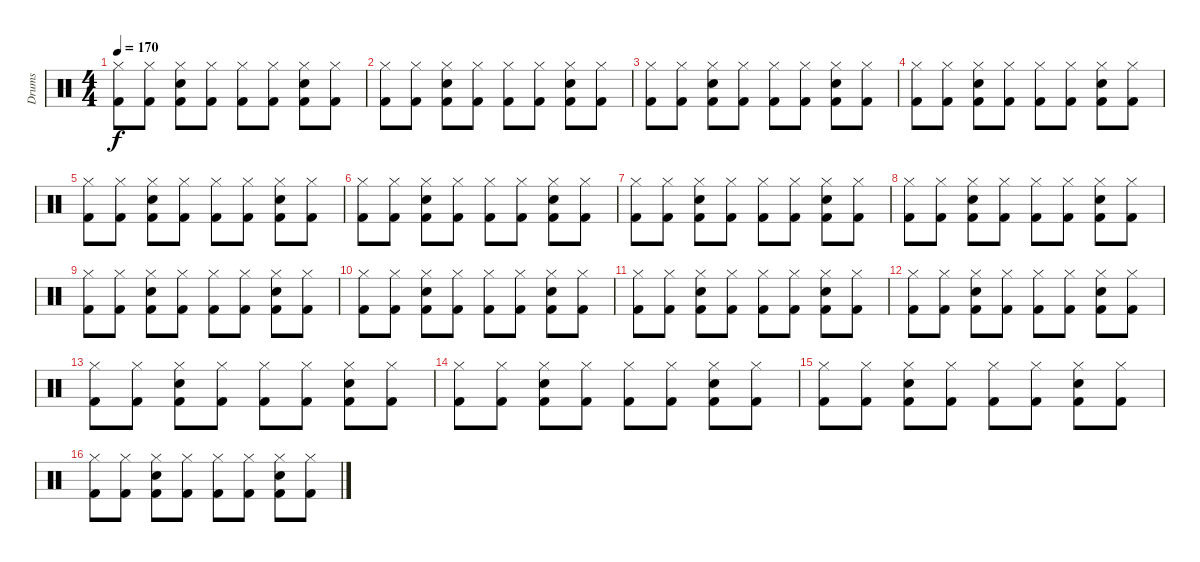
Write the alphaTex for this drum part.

\track ("Drums" "Drums") {instrument percussion}
\staff {score}
\articulation defaults
\ts (4 4)
\tempo 170
\clef neutral
\ks c
("Hi-Hat (closed)" "Kick (hit) 2").8{dy f} ("Hi-Hat (closed)" "Kick (hit) 2").8 ("Hi-Hat (closed)" "Electric Snare (hit)" "Kick (hit) 2").8 ("Hi-Hat (closed)" "Kick (hit) 2").8 ("Hi-Hat (closed)" "Kick (hit) 2").8 ("Hi-Hat (closed)" "Kick (hit) 2").8 ("Hi-Hat (closed)" "Electric Snare (hit)" "Kick (hit) 2").8 ("Hi-Hat (closed)" "Kick (hit) 2").8 |
("Hi-Hat (closed)" "Kick (hit) 2").8 ("Hi-Hat (closed)" "Kick (hit) 2").8 ("Hi-Hat (closed)" "Electric Snare (hit)" "Kick (hit) 2").8 ("Hi-Hat (closed)" "Kick (hit) 2").8 ("Hi-Hat (closed)" "Kick (hit) 2").8 ("Hi-Hat (closed)" "Kick (hit) 2").8 ("Hi-Hat (closed)" "Electric Snare (hit)" "Kick (hit) 2").8 ("Hi-Hat (closed)" "Kick (hit) 2").8 |
("Hi-Hat (closed)" "Kick (hit) 2").8 ("Hi-Hat (closed)" "Kick (hit) 2").8 ("Hi-Hat (closed)" "Electric Snare (hit)" "Kick (hit) 2").8 ("Hi-Hat (closed)" "Kick (hit) 2").8 ("Hi-Hat (closed)" "Kick (hit) 2").8 ("Hi-Hat (closed)" "Kick (hit) 2").8 ("Hi-Hat (closed)" "Electric Snare (hit)" "Kick (hit) 2").8 ("Hi-Hat (closed)" "Kick (hit) 2").8 |
("Hi-Hat (closed)" "Kick (hit) 2").8 ("Hi-Hat (closed)" "Kick (hit) 2").8 ("Hi-Hat (closed)" "Electric Snare (hit)" "Kick (hit) 2").8 ("Hi-Hat (closed)" "Kick (hit) 2").8 ("Hi-Hat (closed)" "Kick (hit) 2").8 ("Hi-Hat (closed)" "Kick (hit) 2").8 ("Hi-Hat (closed)" "Electric Snare (hit)" "Kick (hit) 2").8 ("Hi-Hat (closed)" "Kick (hit) 2").8 |
("Hi-Hat (closed)" "Kick (hit) 2").8 ("Hi-Hat (closed)" "Kick (hit) 2").8 ("Hi-Hat (closed)" "Electric Snare (hit)" "Kick (hit) 2").8 ("Hi-Hat (closed)" "Kick (hit) 2").8 ("Hi-Hat (closed)" "Kick (hit) 2").8 ("Hi-Hat (closed)" "Kick (hit) 2").8 ("Hi-Hat (closed)" "Electric Snare (hit)" "Kick (hit) 2").8 ("Hi-Hat (closed)" "Kick (hit) 2").8 |
("Hi-Hat (closed)" "Kick (hit) 2").8 ("Hi-Hat (closed)" "Kick (hit) 2").8 ("Hi-Hat (closed)" "Electric Snare (hit)" "Kick (hit) 2").8 ("Hi-Hat (closed)" "Kick (hit) 2").8 ("Hi-Hat (closed)" "Kick (hit) 2").8 ("Hi-Hat (closed)" "Kick (hit) 2").8 ("Hi-Hat (closed)" "Electric Snare (hit)" "Kick (hit) 2").8 ("Hi-Hat (closed)" "Kick (hit) 2").8 |
("Hi-Hat (closed)" "Kick (hit) 2").8 ("Hi-Hat (closed)" "Kick (hit) 2").8 ("Hi-Hat (closed)" "Electric Snare (hit)" "Kick (hit) 2").8 ("Hi-Hat (closed)" "Kick (hit) 2").8 ("Hi-Hat (closed)" "Kick (hit) 2").8 ("Hi-Hat (closed)" "Kick (hit) 2").8 ("Hi-Hat (closed)" "Electric Snare (hit)" "Kick (hit) 2").8 ("Hi-Hat (closed)" "Kick (hit) 2").8 |
("Hi-Hat (closed)" "Kick (hit) 2").8 ("Hi-Hat (closed)" "Kick (hit) 2").8 ("Hi-Hat (closed)" "Electric Snare (hit)" "Kick (hit) 2").8 ("Hi-Hat (closed)" "Kick (hit) 2").8 ("Hi-Hat (closed)" "Kick (hit) 2").8 ("Hi-Hat (closed)" "Kick (hit) 2").8 ("Hi-Hat (closed)" "Electric Snare (hit)" "Kick (hit) 2").8 ("Hi-Hat (closed)" "Kick (hit) 2").8 |
("Hi-Hat (closed)" "Kick (hit) 2").8 ("Hi-Hat (closed)" "Kick (hit) 2").8 ("Hi-Hat (closed)" "Electric Snare (hit)" "Kick (hit) 2").8 ("Hi-Hat (closed)" "Kick (hit) 2").8 ("Hi-Hat (closed)" "Kick (hit) 2").8 ("Hi-Hat (closed)" "Kick (hit) 2").8 ("Hi-Hat (closed)" "Electric Snare (hit)" "Kick (hit) 2").8 ("Hi-Hat (closed)" "Kick (hit) 2").8 |
("Hi-Hat (closed)" "Kick (hit) 2").8 ("Hi-Hat (closed)" "Kick (hit) 2").8 ("Hi-Hat (closed)" "Electric Snare (hit)" "Kick (hit) 2").8 ("Hi-Hat (closed)" "Kick (hit) 2").8 ("Hi-Hat (closed)" "Kick (hit) 2").8 ("Hi-Hat (closed)" "Kick (hit) 2").8 ("Hi-Hat (closed)" "Electric Snare (hit)" "Kick (hit) 2").8 ("Hi-Hat (closed)" "Kick (hit) 2").8 |
("Hi-Hat (closed)" "Kick (hit) 2").8 ("Hi-Hat (closed)" "Kick (hit) 2").8 ("Hi-Hat (closed)" "Electric Snare (hit)" "Kick (hit) 2").8 ("Hi-Hat (closed)" "Kick (hit) 2").8 ("Hi-Hat (closed)" "Kick (hit) 2").8 ("Hi-Hat (closed)" "Kick (hit) 2").8 ("Hi-Hat (closed)" "Electric Snare (hit)" "Kick (hit) 2").8 ("Hi-Hat (closed)" "Kick (hit) 2").8 |
("Hi-Hat (closed)" "Kick (hit) 2").8 ("Hi-Hat (closed)" "Kick (hit) 2").8 ("Hi-Hat (closed)" "Electric Snare (hit)" "Kick (hit) 2").8 ("Hi-Hat (closed)" "Kick (hit) 2").8 ("Hi-Hat (closed)" "Kick (hit) 2").8 ("Hi-Hat (closed)" "Kick (hit) 2").8 ("Hi-Hat (closed)" "Electric Snare (hit)" "Kick (hit) 2").8 ("Hi-Hat (closed)" "Kick (hit) 2").8 |
("Hi-Hat (closed)" "Kick (hit) 2").8 ("Hi-Hat (closed)" "Kick (hit) 2").8 ("Hi-Hat (closed)" "Electric Snare (hit)" "Kick (hit) 2").8 ("Hi-Hat (closed)" "Kick (hit) 2").8 ("Hi-Hat (closed)" "Kick (hit) 2").8 ("Hi-Hat (closed)" "Kick (hit) 2").8 ("Hi-Hat (closed)" "Electric Snare (hit)" "Kick (hit) 2").8 ("Hi-Hat (closed)" "Kick (hit) 2").8 |
("Hi-Hat (closed)" "Kick (hit) 2").8 ("Hi-Hat (closed)" "Kick (hit) 2").8 ("Hi-Hat (closed)" "Electric Snare (hit)" "Kick (hit) 2").8 ("Hi-Hat (closed)" "Kick (hit) 2").8 ("Hi-Hat (closed)" "Kick (hit) 2").8 ("Hi-Hat (closed)" "Kick (hit) 2").8 ("Hi-Hat (closed)" "Electric Snare (hit)" "Kick (hit) 2").8 ("Hi-Hat (closed)" "Kick (hit) 2").8 |
("Hi-Hat (closed)" "Kick (hit) 2").8 ("Hi-Hat (closed)" "Kick (hit) 2").8 ("Hi-Hat (closed)" "Electric Snare (hit)" "Kick (hit) 2").8 ("Hi-Hat (closed)" "Kick (hit) 2").8 ("Hi-Hat (closed)" "Kick (hit) 2").8 ("Hi-Hat (closed)" "Kick (hit) 2").8 ("Hi-Hat (closed)" "Electric Snare (hit)" "Kick (hit) 2").8 ("Hi-Hat (closed)" "Kick (hit) 2").8 |
("Hi-Hat (closed)" "Kick (hit) 2").8 ("Hi-Hat (closed)" "Kick (hit) 2").8 ("Hi-Hat (closed)" "Electric Snare (hit)" "Kick (hit) 2").8 ("Hi-Hat (closed)" "Kick (hit) 2").8 ("Hi-Hat (closed)" "Kick (hit) 2").8 ("Hi-Hat (closed)" "Kick (hit) 2").8 ("Hi-Hat (closed)" "Electric Snare (hit)" "Kick (hit) 2").8 ("Hi-Hat (closed)" "Kick (hit) 2").8
